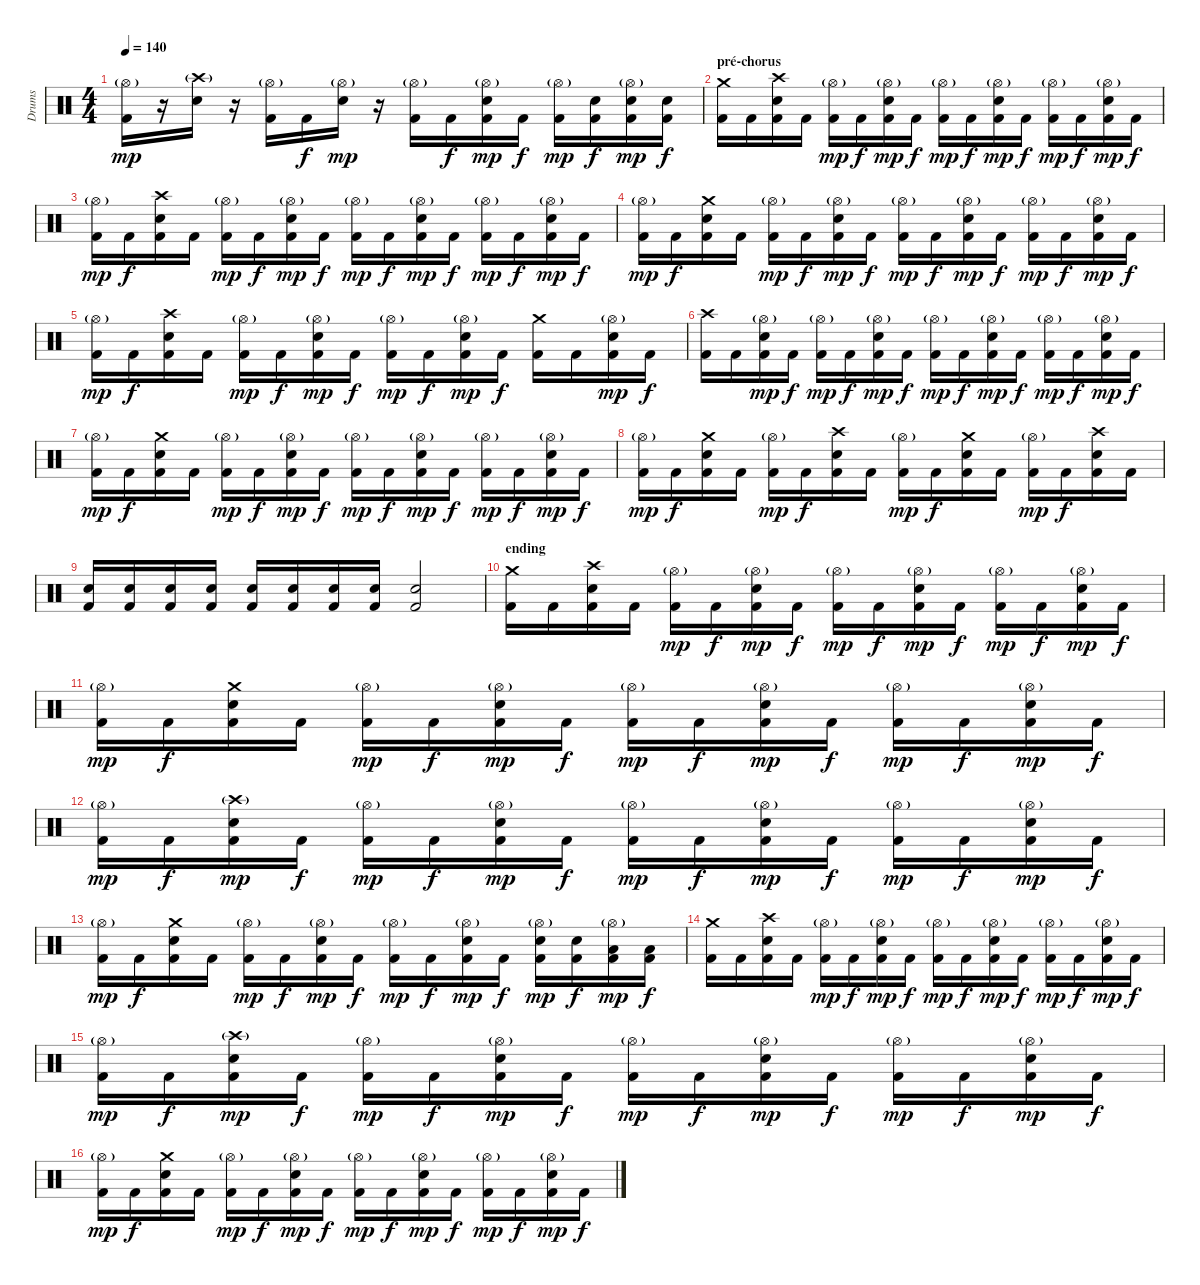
\track ("Drums" "Drums") {instrument percussion}
\staff {score}
\articulation defaults
\ts (4 4)
\tempo 140
\clef neutral
\ks c
("Hi-Hat (open)"{g} "Kick (hit) 2").16{dy mp} r.16 ("Crash high (hit)"{g} "Electric Snare (hit)").16 r.16 ("Hi-Hat (open)"{g} "Kick (hit) 2").16 "Kick (hit) 2".16{dy f} ("Hi-Hat (open)"{g} "Electric Snare (hit)").16{dy mp} r.16 ("Hi-Hat (open)"{g} "Kick (hit) 2").16 "Kick (hit) 2".16{dy f} ("Hi-Hat (open)"{g} "Electric Snare (hit)" "Kick (hit) 2").16{dy mp} "Kick (hit) 2".16{dy f} ("Hi-Hat (open)"{g} "Kick (hit) 2").16{dy mp} ("Electric Snare (hit)" "Kick (hit) 2").16{dy f} ("Hi-Hat (open)"{g} "Electric Snare (hit)" "Kick (hit) 2").16{dy mp} ("Electric Snare (hit)" "Kick (hit) 2").16{dy f} |
\section ("" "pré-chorus")
("Crash medium (hit)" "Kick (hit) 2").16 "Kick (hit) 2".16 ("Crash high (hit)" "Electric Snare (hit)" "Kick (hit) 2").16 "Kick (hit) 2".16 ("Hi-Hat (open)"{g} "Kick (hit) 2").16{dy mp} "Kick (hit) 2".16{dy f} ("Hi-Hat (open)"{g} "Electric Snare (hit)" "Kick (hit) 2").16{dy mp} "Kick (hit) 2".16{dy f} ("Hi-Hat (open)"{g} "Kick (hit) 2").16{dy mp} "Kick (hit) 2".16{dy f} ("Hi-Hat (open)"{g} "Electric Snare (hit)" "Kick (hit) 2").16{dy mp} "Kick (hit) 2".16{dy f} ("Hi-Hat (open)"{g} "Kick (hit) 2").16{dy mp} "Kick (hit) 2".16{dy f} ("Hi-Hat (open)"{g} "Electric Snare (hit)" "Kick (hit) 2").16{dy mp} "Kick (hit) 2".16{dy f} |
("Hi-Hat (open)"{g} "Kick (hit) 2").16{dy mp} "Kick (hit) 2".16{dy f} ("Crash high (hit)" "Electric Snare (hit)" "Kick (hit) 2").16 "Kick (hit) 2".16 ("Hi-Hat (open)"{g} "Kick (hit) 2").16{dy mp} "Kick (hit) 2".16{dy f} ("Hi-Hat (open)"{g} "Electric Snare (hit)" "Kick (hit) 2").16{dy mp} "Kick (hit) 2".16{dy f} ("Hi-Hat (open)"{g} "Kick (hit) 2").16{dy mp} "Kick (hit) 2".16{dy f} ("Hi-Hat (open)"{g} "Electric Snare (hit)" "Kick (hit) 2").16{dy mp} "Kick (hit) 2".16{dy f} ("Hi-Hat (open)"{g} "Kick (hit) 2").16{dy mp} "Kick (hit) 2".16{dy f} ("Hi-Hat (open)"{g} "Electric Snare (hit)" "Kick (hit) 2").16{dy mp} "Kick (hit) 2".16{dy f} |
("Hi-Hat (open)"{g} "Kick (hit) 2").16{dy mp} "Kick (hit) 2".16{dy f} ("Crash medium (hit)" "Electric Snare (hit)" "Kick (hit) 2").16 "Kick (hit) 2".16 ("Hi-Hat (open)"{g} "Kick (hit) 2").16{dy mp} "Kick (hit) 2".16{dy f} ("Hi-Hat (open)"{g} "Electric Snare (hit)" "Kick (hit) 2").16{dy mp} "Kick (hit) 2".16{dy f} ("Hi-Hat (open)"{g} "Kick (hit) 2").16{dy mp} "Kick (hit) 2".16{dy f} ("Hi-Hat (open)"{g} "Electric Snare (hit)" "Kick (hit) 2").16{dy mp} "Kick (hit) 2".16{dy f} ("Hi-Hat (open)"{g} "Kick (hit) 2").16{dy mp} "Kick (hit) 2".16{dy f} ("Hi-Hat (open)"{g} "Electric Snare (hit)" "Kick (hit) 2").16{dy mp} "Kick (hit) 2".16{dy f} |
("Hi-Hat (open)"{g} "Kick (hit) 2").16{dy mp} "Kick (hit) 2".16{dy f} ("Crash high (hit)" "Electric Snare (hit)" "Kick (hit) 2").16 "Kick (hit) 2".16 ("Hi-Hat (open)"{g} "Kick (hit) 2").16{dy mp} "Kick (hit) 2".16{dy f} ("Hi-Hat (open)"{g} "Electric Snare (hit)" "Kick (hit) 2").16{dy mp} "Kick (hit) 2".16{dy f} ("Hi-Hat (open)"{g} "Kick (hit) 2").16{dy mp} "Kick (hit) 2".16{dy f} ("Hi-Hat (open)"{g} "Electric Snare (hit)" "Kick (hit) 2").16{dy mp} "Kick (hit) 2".16{dy f} ("Crash medium (hit)" "Kick (hit) 2").16 "Kick (hit) 2".16 ("Hi-Hat (open)"{g} "Electric Snare (hit)" "Kick (hit) 2").16{dy mp} "Kick (hit) 2".16{dy f} |
("Crash high (hit)" "Kick (hit) 2").16 "Kick (hit) 2".16 ("Hi-Hat (open)"{g} "Electric Snare (hit)" "Kick (hit) 2").16{dy mp} "Kick (hit) 2".16{dy f} ("Hi-Hat (open)"{g} "Kick (hit) 2").16{dy mp} "Kick (hit) 2".16{dy f} ("Hi-Hat (open)"{g} "Electric Snare (hit)" "Kick (hit) 2").16{dy mp} "Kick (hit) 2".16{dy f} ("Hi-Hat (open)"{g} "Kick (hit) 2").16{dy mp} "Kick (hit) 2".16{dy f} ("Hi-Hat (open)"{g} "Electric Snare (hit)" "Kick (hit) 2").16{dy mp} "Kick (hit) 2".16{dy f} ("Hi-Hat (open)"{g} "Kick (hit) 2").16{dy mp} "Kick (hit) 2".16{dy f} ("Hi-Hat (open)"{g} "Electric Snare (hit)" "Kick (hit) 2").16{dy mp} "Kick (hit) 2".16{dy f} |
("Hi-Hat (open)"{g} "Kick (hit) 2").16{dy mp} "Kick (hit) 2".16{dy f} ("Crash medium (hit)" "Electric Snare (hit)" "Kick (hit) 2").16 "Kick (hit) 2".16 ("Hi-Hat (open)"{g} "Kick (hit) 2").16{dy mp} "Kick (hit) 2".16{dy f} ("Hi-Hat (open)"{g} "Electric Snare (hit)" "Kick (hit) 2").16{dy mp} "Kick (hit) 2".16{dy f} ("Hi-Hat (open)"{g} "Kick (hit) 2").16{dy mp} "Kick (hit) 2".16{dy f} ("Hi-Hat (open)"{g} "Electric Snare (hit)" "Kick (hit) 2").16{dy mp} "Kick (hit) 2".16{dy f} ("Hi-Hat (open)"{g} "Kick (hit) 2").16{dy mp} "Kick (hit) 2".16{dy f} ("Hi-Hat (open)"{g} "Electric Snare (hit)" "Kick (hit) 2").16{dy mp} "Kick (hit) 2".16{dy f} |
("Hi-Hat (open)"{g} "Kick (hit) 2").16{dy mp} "Kick (hit) 2".16{dy f} ("Crash medium (hit)" "Electric Snare (hit)" "Kick (hit) 2").16 "Kick (hit) 2".16 ("Hi-Hat (open)"{g} "Kick (hit) 2").16{dy mp} "Kick (hit) 2".16{dy f} ("Crash high (hit)" "Electric Snare (hit)" "Kick (hit) 2").16 "Kick (hit) 2".16 ("Hi-Hat (open)"{g} "Kick (hit) 2").16{dy mp} "Kick (hit) 2".16{dy f} ("Crash medium (hit)" "Electric Snare (hit)" "Kick (hit) 2").16 "Kick (hit) 2".16 ("Hi-Hat (open)"{g} "Kick (hit) 2").16{dy mp} "Kick (hit) 2".16{dy f} ("Crash high (hit)" "Electric Snare (hit)" "Kick (hit) 2").16 "Kick (hit) 2".16 |
("Electric Snare (hit)" "Kick (hit) 2").16 ("Electric Snare (hit)" "Kick (hit) 2").16 ("Electric Snare (hit)" "Kick (hit) 2").16 ("Electric Snare (hit)" "Kick (hit) 2").16 ("Electric Snare (hit)" "Kick (hit) 2").16 ("Electric Snare (hit)" "Kick (hit) 2").16 ("Electric Snare (hit)" "Kick (hit) 2").16 ("Electric Snare (hit)" "Kick (hit) 2").16 ("Electric Snare (hit)" "Kick (hit) 2").2 |
\section ("" "ending")
("Crash medium (hit)" "Kick (hit) 2").16 "Kick (hit) 2".16 ("Crash high (hit)" "Electric Snare (hit)" "Kick (hit) 2").16 "Kick (hit) 2".16 ("Hi-Hat (open)"{g} "Kick (hit) 2").16{dy mp} "Kick (hit) 2".16{dy f} ("Hi-Hat (open)"{g} "Electric Snare (hit)" "Kick (hit) 2").16{dy mp} "Kick (hit) 2".16{dy f} ("Hi-Hat (open)"{g} "Kick (hit) 2").16{dy mp} "Kick (hit) 2".16{dy f} ("Hi-Hat (open)"{g} "Electric Snare (hit)" "Kick (hit) 2").16{dy mp} "Kick (hit) 2".16{dy f} ("Hi-Hat (open)"{g} "Kick (hit) 2").16{dy mp} "Kick (hit) 2".16{dy f} ("Hi-Hat (open)"{g} "Electric Snare (hit)" "Kick (hit) 2").16{dy mp} "Kick (hit) 2".16{dy f} |
("Hi-Hat (open)"{g} "Kick (hit) 2").16{dy mp} "Kick (hit) 2".16{dy f} ("Crash medium (hit)" "Electric Snare (hit)" "Kick (hit) 2").16 "Kick (hit) 2".16 ("Hi-Hat (open)"{g} "Kick (hit) 2").16{dy mp} "Kick (hit) 2".16{dy f} ("Hi-Hat (open)"{g} "Electric Snare (hit)" "Kick (hit) 2").16{dy mp} "Kick (hit) 2".16{dy f} ("Hi-Hat (open)"{g} "Kick (hit) 2").16{dy mp} "Kick (hit) 2".16{dy f} ("Hi-Hat (open)"{g} "Electric Snare (hit)" "Kick (hit) 2").16{dy mp} "Kick (hit) 2".16{dy f} ("Hi-Hat (open)"{g} "Kick (hit) 2").16{dy mp} "Kick (hit) 2".16{dy f} ("Hi-Hat (open)"{g} "Electric Snare (hit)" "Kick (hit) 2").16{dy mp} "Kick (hit) 2".16{dy f} |
("Hi-Hat (open)"{g} "Kick (hit) 2").16{dy mp} "Kick (hit) 2".16{dy f} ("Crash high (hit)"{g} "Electric Snare (hit)" "Kick (hit) 2").16{dy mp} "Kick (hit) 2".16{dy f} ("Hi-Hat (open)"{g} "Kick (hit) 2").16{dy mp} "Kick (hit) 2".16{dy f} ("Hi-Hat (open)"{g} "Electric Snare (hit)" "Kick (hit) 2").16{dy mp} "Kick (hit) 2".16{dy f} ("Hi-Hat (open)"{g} "Kick (hit) 2").16{dy mp} "Kick (hit) 2".16{dy f} ("Hi-Hat (open)"{g} "Electric Snare (hit)" "Kick (hit) 2").16{dy mp} "Kick (hit) 2".16{dy f} ("Hi-Hat (open)"{g} "Kick (hit) 2").16{dy mp} "Kick (hit) 2".16{dy f} ("Hi-Hat (open)"{g} "Electric Snare (hit)" "Kick (hit) 2").16{dy mp} "Kick (hit) 2".16{dy f} |
("Hi-Hat (open)"{g} "Kick (hit) 2").16{dy mp} "Kick (hit) 2".16{dy f} ("Crash medium (hit)" "Electric Snare (hit)" "Kick (hit) 2").16 "Kick (hit) 2".16 ("Hi-Hat (open)"{g} "Kick (hit) 2").16{dy mp} "Kick (hit) 2".16{dy f} ("Hi-Hat (open)"{g} "Electric Snare (hit)" "Kick (hit) 2").16{dy mp} "Kick (hit) 2".16{dy f} ("Hi-Hat (open)"{g} "Kick (hit) 2").16{dy mp} "Kick (hit) 2".16{dy f} ("Hi-Hat (open)"{g} "Electric Snare (hit)" "Kick (hit) 2").16{dy mp} "Kick (hit) 2".16{dy f} ("Hi-Hat (open)"{g} "Electric Snare (hit)" "Kick (hit) 2").16{dy mp} ("Electric Snare (hit)" "Kick (hit) 2").16{dy f} ("Hi-Hat (open)"{g} "Low Tom (hit)" "Kick (hit) 2").16{dy mp} ("Low Tom (hit)" "Kick (hit) 2").16{dy f} |
("Crash medium (hit)" "Kick (hit) 2").16 "Kick (hit) 2".16 ("Crash high (hit)" "Electric Snare (hit)" "Kick (hit) 2").16 "Kick (hit) 2".16 ("Hi-Hat (open)"{g} "Kick (hit) 2").16{dy mp} "Kick (hit) 2".16{dy f} ("Hi-Hat (open)"{g} "Electric Snare (hit)" "Kick (hit) 2").16{dy mp} "Kick (hit) 2".16{dy f} ("Hi-Hat (open)"{g} "Kick (hit) 2").16{dy mp} "Kick (hit) 2".16{dy f} ("Hi-Hat (open)"{g} "Electric Snare (hit)" "Kick (hit) 2").16{dy mp} "Kick (hit) 2".16{dy f} ("Hi-Hat (open)"{g} "Kick (hit) 2").16{dy mp} "Kick (hit) 2".16{dy f} ("Hi-Hat (open)"{g} "Electric Snare (hit)" "Kick (hit) 2").16{dy mp} "Kick (hit) 2".16{dy f} |
("Hi-Hat (open)"{g} "Kick (hit) 2").16{dy mp} "Kick (hit) 2".16{dy f} ("Crash high (hit)"{g} "Electric Snare (hit)" "Kick (hit) 2").16{dy mp} "Kick (hit) 2".16{dy f} ("Hi-Hat (open)"{g} "Kick (hit) 2").16{dy mp} "Kick (hit) 2".16{dy f} ("Hi-Hat (open)"{g} "Electric Snare (hit)" "Kick (hit) 2").16{dy mp} "Kick (hit) 2".16{dy f} ("Hi-Hat (open)"{g} "Kick (hit) 2").16{dy mp} "Kick (hit) 2".16{dy f} ("Hi-Hat (open)"{g} "Electric Snare (hit)" "Kick (hit) 2").16{dy mp} "Kick (hit) 2".16{dy f} ("Hi-Hat (open)"{g} "Kick (hit) 2").16{dy mp} "Kick (hit) 2".16{dy f} ("Hi-Hat (open)"{g} "Electric Snare (hit)" "Kick (hit) 2").16{dy mp} "Kick (hit) 2".16{dy f} |
("Hi-Hat (open)"{g} "Kick (hit) 2").16{dy mp} "Kick (hit) 2".16{dy f} ("Crash medium (hit)" "Electric Snare (hit)" "Kick (hit) 2").16 "Kick (hit) 2".16 ("Hi-Hat (open)"{g} "Kick (hit) 2").16{dy mp} "Kick (hit) 2".16{dy f} ("Hi-Hat (open)"{g} "Electric Snare (hit)" "Kick (hit) 2").16{dy mp} "Kick (hit) 2".16{dy f} ("Hi-Hat (open)"{g} "Kick (hit) 2").16{dy mp} "Kick (hit) 2".16{dy f} ("Hi-Hat (open)"{g} "Electric Snare (hit)" "Kick (hit) 2").16{dy mp} "Kick (hit) 2".16{dy f} ("Hi-Hat (open)"{g} "Kick (hit) 2").16{dy mp} "Kick (hit) 2".16{dy f} ("Hi-Hat (open)"{g} "Electric Snare (hit)" "Kick (hit) 2").16{dy mp} "Kick (hit) 2".16{dy f}
